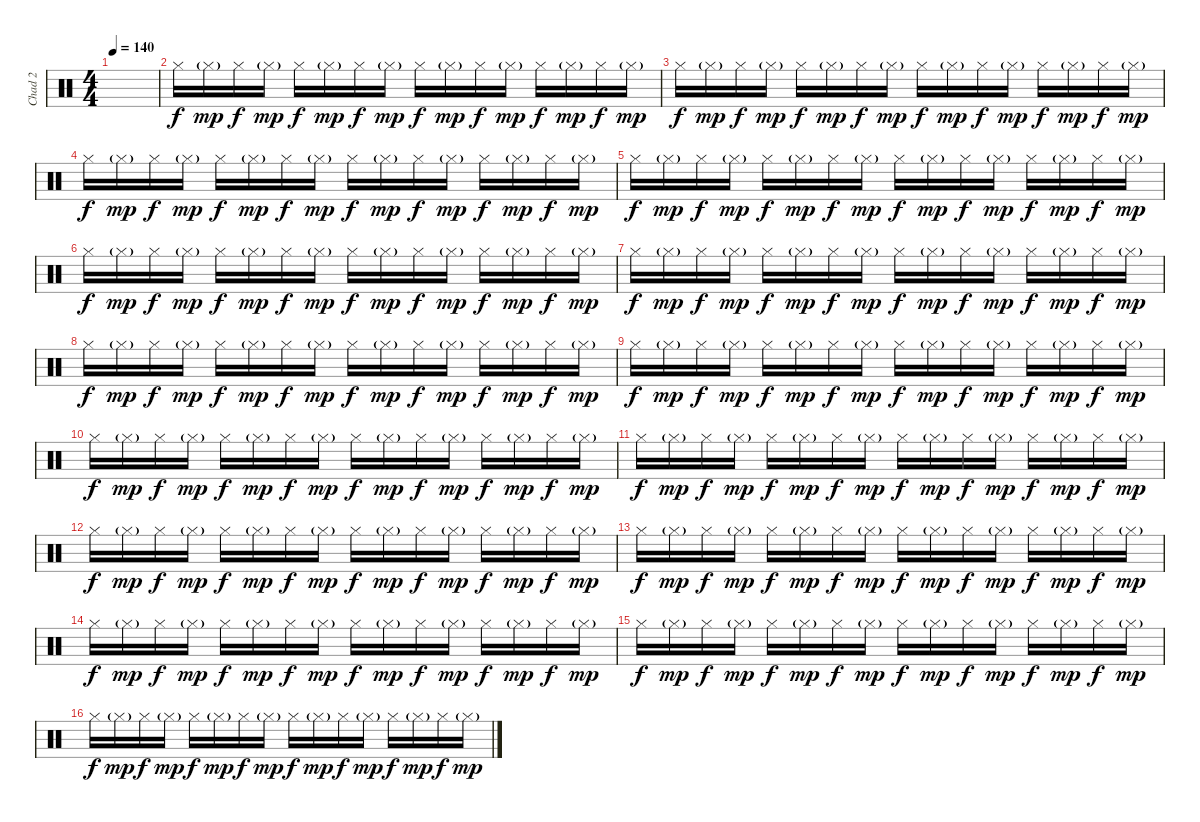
\track ("Chad 2" "Chad 2") {instrument percussion}
\staff {score}
\articulation defaults
\ts (4 4)
\tempo 140
\clef neutral
\ks c
|
"Hi-Hat (closed)".16 "Hi-Hat (closed)"{g}.16{dy mp} "Hi-Hat (closed)".16{dy f} "Hi-Hat (closed)"{g}.16{dy mp} "Hi-Hat (closed)".16{dy f} "Hi-Hat (closed)"{g}.16{dy mp} "Hi-Hat (closed)".16{dy f} "Hi-Hat (closed)"{g}.16{dy mp} "Hi-Hat (closed)".16{dy f} "Hi-Hat (closed)"{g}.16{dy mp} "Hi-Hat (closed)".16{dy f} "Hi-Hat (closed)"{g}.16{dy mp} "Hi-Hat (closed)".16{dy f} "Hi-Hat (closed)"{g}.16{dy mp} "Hi-Hat (closed)".16{dy f} "Hi-Hat (closed)"{g}.16{dy mp} |
"Hi-Hat (closed)".16{dy f} "Hi-Hat (closed)"{g}.16{dy mp} "Hi-Hat (closed)".16{dy f} "Hi-Hat (closed)"{g}.16{dy mp} "Hi-Hat (closed)".16{dy f} "Hi-Hat (closed)"{g}.16{dy mp} "Hi-Hat (closed)".16{dy f} "Hi-Hat (closed)"{g}.16{dy mp} "Hi-Hat (closed)".16{dy f} "Hi-Hat (closed)"{g}.16{dy mp} "Hi-Hat (closed)".16{dy f} "Hi-Hat (closed)"{g}.16{dy mp} "Hi-Hat (closed)".16{dy f} "Hi-Hat (closed)"{g}.16{dy mp} "Hi-Hat (closed)".16{dy f} "Hi-Hat (closed)"{g}.16{dy mp} |
"Hi-Hat (closed)".16{dy f} "Hi-Hat (closed)"{g}.16{dy mp} "Hi-Hat (closed)".16{dy f} "Hi-Hat (closed)"{g}.16{dy mp} "Hi-Hat (closed)".16{dy f} "Hi-Hat (closed)"{g}.16{dy mp} "Hi-Hat (closed)".16{dy f} "Hi-Hat (closed)"{g}.16{dy mp} "Hi-Hat (closed)".16{dy f} "Hi-Hat (closed)"{g}.16{dy mp} "Hi-Hat (closed)".16{dy f} "Hi-Hat (closed)"{g}.16{dy mp} "Hi-Hat (closed)".16{dy f} "Hi-Hat (closed)"{g}.16{dy mp} "Hi-Hat (closed)".16{dy f} "Hi-Hat (closed)"{g}.16{dy mp} |
"Hi-Hat (closed)".16{dy f} "Hi-Hat (closed)"{g}.16{dy mp} "Hi-Hat (closed)".16{dy f} "Hi-Hat (closed)"{g}.16{dy mp} "Hi-Hat (closed)".16{dy f} "Hi-Hat (closed)"{g}.16{dy mp} "Hi-Hat (closed)".16{dy f} "Hi-Hat (closed)"{g}.16{dy mp} "Hi-Hat (closed)".16{dy f} "Hi-Hat (closed)"{g}.16{dy mp} "Hi-Hat (closed)".16{dy f} "Hi-Hat (closed)"{g}.16{dy mp} "Hi-Hat (closed)".16{dy f} "Hi-Hat (closed)"{g}.16{dy mp} "Hi-Hat (closed)".16{dy f} "Hi-Hat (closed)"{g}.16{dy mp} |
"Hi-Hat (closed)".16{dy f} "Hi-Hat (closed)"{g}.16{dy mp} "Hi-Hat (closed)".16{dy f} "Hi-Hat (closed)"{g}.16{dy mp} "Hi-Hat (closed)".16{dy f} "Hi-Hat (closed)"{g}.16{dy mp} "Hi-Hat (closed)".16{dy f} "Hi-Hat (closed)"{g}.16{dy mp} "Hi-Hat (closed)".16{dy f} "Hi-Hat (closed)"{g}.16{dy mp} "Hi-Hat (closed)".16{dy f} "Hi-Hat (closed)"{g}.16{dy mp} "Hi-Hat (closed)".16{dy f} "Hi-Hat (closed)"{g}.16{dy mp} "Hi-Hat (closed)".16{dy f} "Hi-Hat (closed)"{g}.16{dy mp} |
"Hi-Hat (closed)".16{dy f} "Hi-Hat (closed)"{g}.16{dy mp} "Hi-Hat (closed)".16{dy f} "Hi-Hat (closed)"{g}.16{dy mp} "Hi-Hat (closed)".16{dy f} "Hi-Hat (closed)"{g}.16{dy mp} "Hi-Hat (closed)".16{dy f} "Hi-Hat (closed)"{g}.16{dy mp} "Hi-Hat (closed)".16{dy f} "Hi-Hat (closed)"{g}.16{dy mp} "Hi-Hat (closed)".16{dy f} "Hi-Hat (closed)"{g}.16{dy mp} "Hi-Hat (closed)".16{dy f} "Hi-Hat (closed)"{g}.16{dy mp} "Hi-Hat (closed)".16{dy f} "Hi-Hat (closed)"{g}.16{dy mp} |
"Hi-Hat (closed)".16{dy f} "Hi-Hat (closed)"{g}.16{dy mp} "Hi-Hat (closed)".16{dy f} "Hi-Hat (closed)"{g}.16{dy mp} "Hi-Hat (closed)".16{dy f} "Hi-Hat (closed)"{g}.16{dy mp} "Hi-Hat (closed)".16{dy f} "Hi-Hat (closed)"{g}.16{dy mp} "Hi-Hat (closed)".16{dy f} "Hi-Hat (closed)"{g}.16{dy mp} "Hi-Hat (closed)".16{dy f} "Hi-Hat (closed)"{g}.16{dy mp} "Hi-Hat (closed)".16{dy f} "Hi-Hat (closed)"{g}.16{dy mp} "Hi-Hat (closed)".16{dy f} "Hi-Hat (closed)"{g}.16{dy mp} |
"Hi-Hat (closed)".16{dy f} "Hi-Hat (closed)"{g}.16{dy mp} "Hi-Hat (closed)".16{dy f} "Hi-Hat (closed)"{g}.16{dy mp} "Hi-Hat (closed)".16{dy f} "Hi-Hat (closed)"{g}.16{dy mp} "Hi-Hat (closed)".16{dy f} "Hi-Hat (closed)"{g}.16{dy mp} "Hi-Hat (closed)".16{dy f} "Hi-Hat (closed)"{g}.16{dy mp} "Hi-Hat (closed)".16{dy f} "Hi-Hat (closed)"{g}.16{dy mp} "Hi-Hat (closed)".16{dy f} "Hi-Hat (closed)"{g}.16{dy mp} "Hi-Hat (closed)".16{dy f} "Hi-Hat (closed)"{g}.16{dy mp} |
"Hi-Hat (closed)".16{dy f} "Hi-Hat (closed)"{g}.16{dy mp} "Hi-Hat (closed)".16{dy f} "Hi-Hat (closed)"{g}.16{dy mp} "Hi-Hat (closed)".16{dy f} "Hi-Hat (closed)"{g}.16{dy mp} "Hi-Hat (closed)".16{dy f} "Hi-Hat (closed)"{g}.16{dy mp} "Hi-Hat (closed)".16{dy f} "Hi-Hat (closed)"{g}.16{dy mp} "Hi-Hat (closed)".16{dy f} "Hi-Hat (closed)"{g}.16{dy mp} "Hi-Hat (closed)".16{dy f} "Hi-Hat (closed)"{g}.16{dy mp} "Hi-Hat (closed)".16{dy f} "Hi-Hat (closed)"{g}.16{dy mp} |
"Hi-Hat (closed)".16{dy f} "Hi-Hat (closed)"{g}.16{dy mp} "Hi-Hat (closed)".16{dy f} "Hi-Hat (closed)"{g}.16{dy mp} "Hi-Hat (closed)".16{dy f} "Hi-Hat (closed)"{g}.16{dy mp} "Hi-Hat (closed)".16{dy f} "Hi-Hat (closed)"{g}.16{dy mp} "Hi-Hat (closed)".16{dy f} "Hi-Hat (closed)"{g}.16{dy mp} "Hi-Hat (closed)".16{dy f} "Hi-Hat (closed)"{g}.16{dy mp} "Hi-Hat (closed)".16{dy f} "Hi-Hat (closed)"{g}.16{dy mp} "Hi-Hat (closed)".16{dy f} "Hi-Hat (closed)"{g}.16{dy mp} |
"Hi-Hat (closed)".16{dy f} "Hi-Hat (closed)"{g}.16{dy mp} "Hi-Hat (closed)".16{dy f} "Hi-Hat (closed)"{g}.16{dy mp} "Hi-Hat (closed)".16{dy f} "Hi-Hat (closed)"{g}.16{dy mp} "Hi-Hat (closed)".16{dy f} "Hi-Hat (closed)"{g}.16{dy mp} "Hi-Hat (closed)".16{dy f} "Hi-Hat (closed)"{g}.16{dy mp} "Hi-Hat (closed)".16{dy f} "Hi-Hat (closed)"{g}.16{dy mp} "Hi-Hat (closed)".16{dy f} "Hi-Hat (closed)"{g}.16{dy mp} "Hi-Hat (closed)".16{dy f} "Hi-Hat (closed)"{g}.16{dy mp} |
"Hi-Hat (closed)".16{dy f} "Hi-Hat (closed)"{g}.16{dy mp} "Hi-Hat (closed)".16{dy f} "Hi-Hat (closed)"{g}.16{dy mp} "Hi-Hat (closed)".16{dy f} "Hi-Hat (closed)"{g}.16{dy mp} "Hi-Hat (closed)".16{dy f} "Hi-Hat (closed)"{g}.16{dy mp} "Hi-Hat (closed)".16{dy f} "Hi-Hat (closed)"{g}.16{dy mp} "Hi-Hat (closed)".16{dy f} "Hi-Hat (closed)"{g}.16{dy mp} "Hi-Hat (closed)".16{dy f} "Hi-Hat (closed)"{g}.16{dy mp} "Hi-Hat (closed)".16{dy f} "Hi-Hat (closed)"{g}.16{dy mp} |
"Hi-Hat (closed)".16{dy f} "Hi-Hat (closed)"{g}.16{dy mp} "Hi-Hat (closed)".16{dy f} "Hi-Hat (closed)"{g}.16{dy mp} "Hi-Hat (closed)".16{dy f} "Hi-Hat (closed)"{g}.16{dy mp} "Hi-Hat (closed)".16{dy f} "Hi-Hat (closed)"{g}.16{dy mp} "Hi-Hat (closed)".16{dy f} "Hi-Hat (closed)"{g}.16{dy mp} "Hi-Hat (closed)".16{dy f} "Hi-Hat (closed)"{g}.16{dy mp} "Hi-Hat (closed)".16{dy f} "Hi-Hat (closed)"{g}.16{dy mp} "Hi-Hat (closed)".16{dy f} "Hi-Hat (closed)"{g}.16{dy mp} |
"Hi-Hat (closed)".16{dy f} "Hi-Hat (closed)"{g}.16{dy mp} "Hi-Hat (closed)".16{dy f} "Hi-Hat (closed)"{g}.16{dy mp} "Hi-Hat (closed)".16{dy f} "Hi-Hat (closed)"{g}.16{dy mp} "Hi-Hat (closed)".16{dy f} "Hi-Hat (closed)"{g}.16{dy mp} "Hi-Hat (closed)".16{dy f} "Hi-Hat (closed)"{g}.16{dy mp} "Hi-Hat (closed)".16{dy f} "Hi-Hat (closed)"{g}.16{dy mp} "Hi-Hat (closed)".16{dy f} "Hi-Hat (closed)"{g}.16{dy mp} "Hi-Hat (closed)".16{dy f} "Hi-Hat (closed)"{g}.16{dy mp} |
"Hi-Hat (closed)".16{dy f} "Hi-Hat (closed)"{g}.16{dy mp} "Hi-Hat (closed)".16{dy f} "Hi-Hat (closed)"{g}.16{dy mp} "Hi-Hat (closed)".16{dy f} "Hi-Hat (closed)"{g}.16{dy mp} "Hi-Hat (closed)".16{dy f} "Hi-Hat (closed)"{g}.16{dy mp} "Hi-Hat (closed)".16{dy f} "Hi-Hat (closed)"{g}.16{dy mp} "Hi-Hat (closed)".16{dy f} "Hi-Hat (closed)"{g}.16{dy mp} "Hi-Hat (closed)".16{dy f} "Hi-Hat (closed)"{g}.16{dy mp} "Hi-Hat (closed)".16{dy f} "Hi-Hat (closed)"{g}.16{dy mp}
